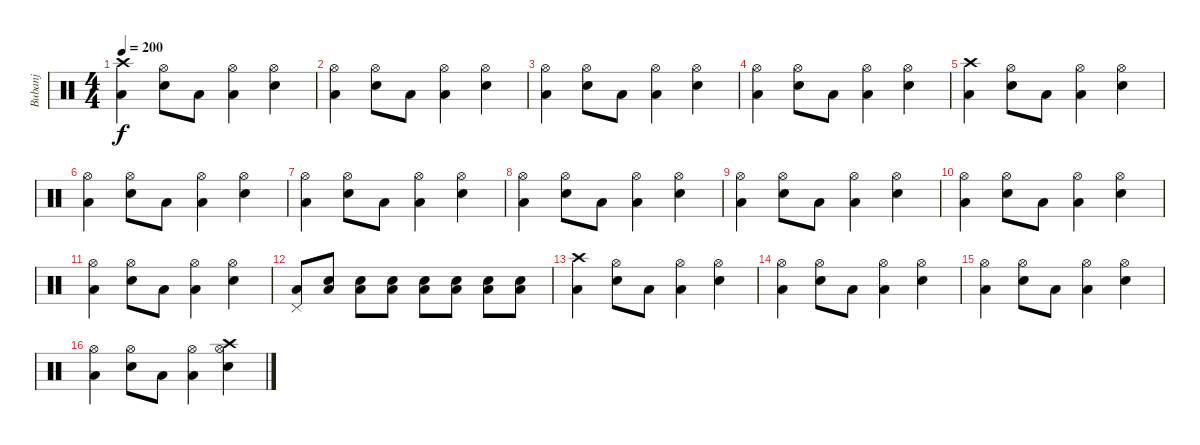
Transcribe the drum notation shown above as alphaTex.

\track ("Bubanj" "Bubanj") {instrument percussion}
\staff {score}
\articulation defaults
\ts (4 4)
\tempo 200
\clef neutral
\ks c
("Crash high (hit)" "Low Tom (hit)").4{dy f} ("Hi-Hat (open)" "Snare (hit) 2").8 "Low Tom (hit)".8 ("Hi-Hat (open)" "Low Tom (hit)").4 ("Hi-Hat (open)" "Snare (hit) 2").4 |
("Hi-Hat (open)" "Low Tom (hit)").4 ("Hi-Hat (open)" "Snare (hit) 2").8 "Low Tom (hit)".8 ("Hi-Hat (open)" "Low Tom (hit)").4 ("Hi-Hat (open)" "Snare (hit) 2").4 |
("Hi-Hat (open)" "Low Tom (hit)").4 ("Hi-Hat (open)" "Snare (hit) 2").8 "Low Tom (hit)".8 ("Hi-Hat (open)" "Low Tom (hit)").4 ("Hi-Hat (open)" "Snare (hit) 2").4 |
("Hi-Hat (open)" "Low Tom (hit)").4 ("Hi-Hat (open)" "Snare (hit) 2").8 "Low Tom (hit)".8 ("Hi-Hat (open)" "Low Tom (hit)").4 ("Hi-Hat (open)" "Snare (hit) 2").4 |
("Crash high (hit)" "Low Tom (hit)").4 ("Hi-Hat (open)" "Snare (hit) 2").8 "Low Tom (hit)".8 ("Hi-Hat (open)" "Low Tom (hit)").4 ("Hi-Hat (open)" "Snare (hit) 2").4 |
("Hi-Hat (open)" "Low Tom (hit)").4 ("Hi-Hat (open)" "Snare (hit) 2").8 "Low Tom (hit)".8 ("Hi-Hat (open)" "Low Tom (hit)").4 ("Hi-Hat (open)" "Snare (hit) 2").4 |
("Hi-Hat (open)" "Low Tom (hit)").4 ("Hi-Hat (open)" "Snare (hit) 2").8 "Low Tom (hit)".8 ("Hi-Hat (open)" "Low Tom (hit)").4 ("Hi-Hat (open)" "Snare (hit) 2").4 |
("Hi-Hat (open)" "Low Tom (hit)").4 ("Hi-Hat (open)" "Snare (hit) 2").8 "Low Tom (hit)".8 ("Hi-Hat (open)" "Low Tom (hit)").4 ("Hi-Hat (open)" "Snare (hit) 2").4 |
("Hi-Hat (open)" "Low Tom (hit)").4 ("Hi-Hat (open)" "Snare (hit) 2").8 "Low Tom (hit)".8 ("Hi-Hat (open)" "Low Tom (hit)").4 ("Hi-Hat (open)" "Snare (hit) 2").4 |
("Hi-Hat (open)" "Low Tom (hit)").4 ("Hi-Hat (open)" "Snare (hit) 2").8 "Low Tom (hit)".8 ("Hi-Hat (open)" "Low Tom (hit)").4 ("Hi-Hat (open)" "Snare (hit) 2").4 |
("Hi-Hat (open)" "Low Tom (hit)").4 ("Hi-Hat (open)" "Snare (hit) 2").8 "Low Tom (hit)".8 ("Hi-Hat (open)" "Low Tom (hit)").4 ("Hi-Hat (open)" "Snare (hit) 2").4 |
("Pedal Hi-Hat (hit)" "Low Tom (hit)").8 ("Snare (hit) 2" "Low Tom (hit)").8 ("Snare (hit) 2" "Low Tom (hit)").8 ("Snare (hit) 2" "Low Tom (hit)").8 ("Snare (hit) 2" "Low Tom (hit)").8 ("Snare (hit) 2" "Low Tom (hit)").8 ("Snare (hit) 2" "Low Tom (hit)").8 ("Snare (hit) 2" "Low Tom (hit)").8 |
("Crash high (hit)" "Low Tom (hit)").4 ("Hi-Hat (open)" "Snare (hit) 2").8 "Low Tom (hit)".8 ("Hi-Hat (open)" "Low Tom (hit)").4 ("Hi-Hat (open)" "Snare (hit) 2").4 |
("Hi-Hat (open)" "Low Tom (hit)").4 ("Hi-Hat (open)" "Snare (hit) 2").8 "Low Tom (hit)".8 ("Hi-Hat (open)" "Low Tom (hit)").4 ("Hi-Hat (open)" "Snare (hit) 2").4 |
("Hi-Hat (open)" "Low Tom (hit)").4 ("Hi-Hat (open)" "Snare (hit) 2").8 "Low Tom (hit)".8 ("Hi-Hat (open)" "Low Tom (hit)").4 ("Hi-Hat (open)" "Snare (hit) 2").4 |
("Hi-Hat (open)" "Low Tom (hit)").4 ("Hi-Hat (open)" "Snare (hit) 2").8 "Low Tom (hit)".8 ("Hi-Hat (open)" "Low Tom (hit)").4 ("Hi-Hat (open)" "Crash high (hit)" "Snare (hit) 2").4
